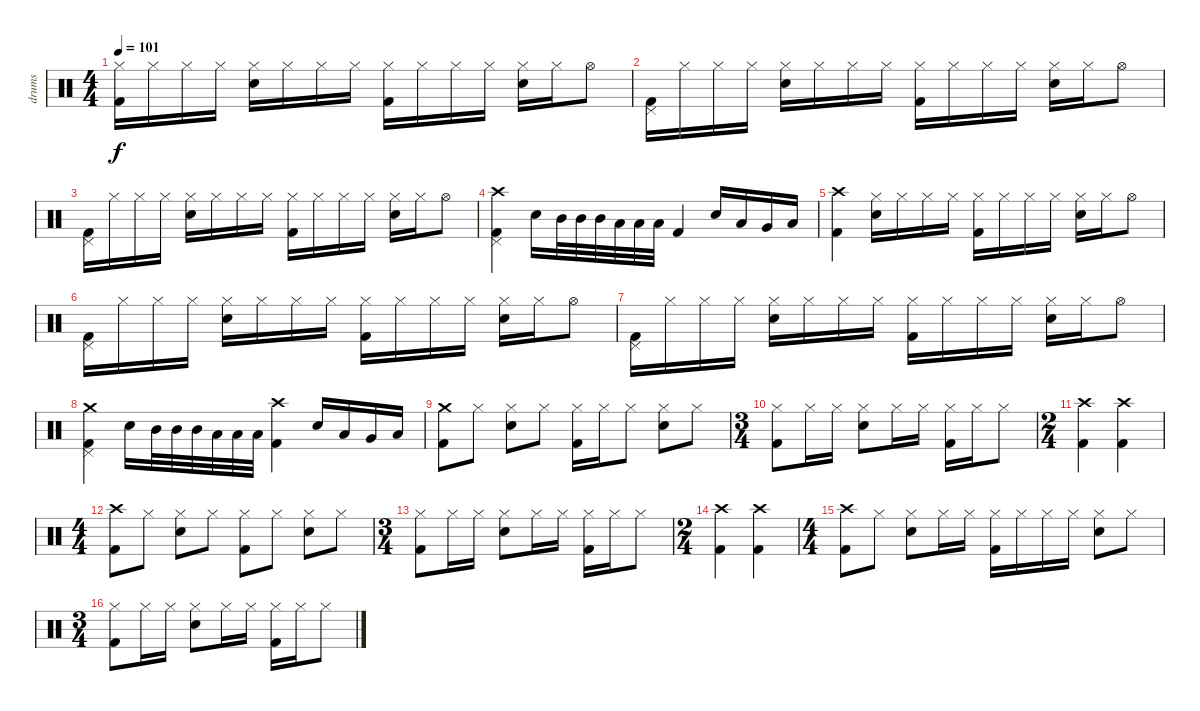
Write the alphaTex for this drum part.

\track ("drums" "drums") {instrument percussion}
\staff {score}
\articulation defaults
\ts (4 4)
\tempo 101
\clef neutral
\ks c
("Hi-Hat (closed)" "Kick (hit) 2").16{dy f} "Hi-Hat (closed)".16 "Hi-Hat (closed)".16 "Hi-Hat (closed)".16 ("Hi-Hat (closed)" "Electric Snare (hit)").16 "Hi-Hat (closed)".16 "Hi-Hat (closed)".16 "Hi-Hat (closed)".16 ("Hi-Hat (closed)" "Kick (hit) 2").16 "Hi-Hat (closed)".16 "Hi-Hat (closed)".16 "Hi-Hat (closed)".16 ("Hi-Hat (closed)" "Electric Snare (hit)").16 "Hi-Hat (closed)".16 "Hi-Hat (open)".8 |
("Pedal Hi-Hat (hit)" "Kick (hit) 2").16 "Hi-Hat (closed)".16 "Hi-Hat (closed)".16 "Hi-Hat (closed)".16 ("Hi-Hat (closed)" "Electric Snare (hit)").16 "Hi-Hat (closed)".16 "Hi-Hat (closed)".16 "Hi-Hat (closed)".16 ("Hi-Hat (closed)" "Kick (hit) 2").16 "Hi-Hat (closed)".16 "Hi-Hat (closed)".16 "Hi-Hat (closed)".16 ("Hi-Hat (closed)" "Electric Snare (hit)").16 "Hi-Hat (closed)".16 "Hi-Hat (open)".8 |
("Pedal Hi-Hat (hit)" "Kick (hit) 2").16 "Hi-Hat (closed)".16 "Hi-Hat (closed)".16 "Hi-Hat (closed)".16 ("Hi-Hat (closed)" "Electric Snare (hit)").16 "Hi-Hat (closed)".16 "Hi-Hat (closed)".16 "Hi-Hat (closed)".16 ("Hi-Hat (closed)" "Kick (hit) 2").16 "Hi-Hat (closed)".16 "Hi-Hat (closed)".16 "Hi-Hat (closed)".16 ("Hi-Hat (closed)" "Electric Snare (hit)").16 "Hi-Hat (closed)".16 "Hi-Hat (open)".8 |
("Crash high (hit)" "Pedal Hi-Hat (hit)" "Kick (hit) 2").4 "Electric Snare (hit)".16 "Mid Tom (hit)".32 "Mid Tom (hit)".32 "Mid Tom (hit)".32 "Low Tom (hit)".32 "Low Tom (hit)".32 "Low Tom (hit)".32 "Kick (hit) 2".4 "Electric Snare (hit)".16 "Low Tom (hit)".16 "Very Low Tom (hit)".16 "Low Floor Tom (hit)".16 |
("Crash high (hit)" "Kick (hit) 2").4 ("Hi-Hat (closed)" "Electric Snare (hit)").16 "Hi-Hat (closed)".16 "Hi-Hat (closed)".16 "Hi-Hat (closed)".16 ("Hi-Hat (closed)" "Kick (hit) 2").16 "Hi-Hat (closed)".16 "Hi-Hat (closed)".16 "Hi-Hat (closed)".16 ("Hi-Hat (closed)" "Electric Snare (hit)").16 "Hi-Hat (closed)".16 "Hi-Hat (open)".8 |
("Pedal Hi-Hat (hit)" "Kick (hit) 2").16 "Hi-Hat (closed)".16 "Hi-Hat (closed)".16 "Hi-Hat (closed)".16 ("Hi-Hat (closed)" "Electric Snare (hit)").16 "Hi-Hat (closed)".16 "Hi-Hat (closed)".16 "Hi-Hat (closed)".16 ("Hi-Hat (closed)" "Kick (hit) 2").16 "Hi-Hat (closed)".16 "Hi-Hat (closed)".16 "Hi-Hat (closed)".16 ("Hi-Hat (closed)" "Electric Snare (hit)").16 "Hi-Hat (closed)".16 "Hi-Hat (open)".8 |
("Pedal Hi-Hat (hit)" "Kick (hit) 2").16 "Hi-Hat (closed)".16 "Hi-Hat (closed)".16 "Hi-Hat (closed)".16 ("Hi-Hat (closed)" "Electric Snare (hit)").16 "Hi-Hat (closed)".16 "Hi-Hat (closed)".16 "Hi-Hat (closed)".16 ("Hi-Hat (closed)" "Kick (hit) 2").16 "Hi-Hat (closed)".16 "Hi-Hat (closed)".16 "Hi-Hat (closed)".16 ("Hi-Hat (closed)" "Electric Snare (hit)").16 "Hi-Hat (closed)".16 "Hi-Hat (open)".8 |
("Crash medium (hit)" "Pedal Hi-Hat (hit)" "Kick (hit) 2").4 "Electric Snare (hit)".16 "Mid Tom (hit)".32 "Mid Tom (hit)".32 "Mid Tom (hit)".32 "Low Tom (hit)".32 "Low Tom (hit)".32 "Low Tom (hit)".32 ("Crash high (hit)" "Kick (hit) 2").4 "Electric Snare (hit)".16 "Low Tom (hit)".16 "Very Low Tom (hit)".16 "Low Floor Tom (hit)".16 |
("Crash medium (hit)" "Kick (hit) 2").8 "Hi-Hat (closed)".8 ("Hi-Hat (closed)" "Electric Snare (hit)").8 "Hi-Hat (closed)".8 ("Hi-Hat (closed)" "Kick (hit) 2").16 "Hi-Hat (closed)".16 "Hi-Hat (closed)".8 ("Hi-Hat (closed)" "Electric Snare (hit)").8 "Hi-Hat (closed)".8 |
\ts (3 4)
("Hi-Hat (closed)" "Kick (hit) 2").8 "Hi-Hat (closed)".16 "Hi-Hat (closed)".16 ("Hi-Hat (closed)" "Electric Snare (hit)").8 "Hi-Hat (closed)".16 "Hi-Hat (closed)".16 ("Hi-Hat (closed)" "Kick (hit) 2").16 "Hi-Hat (closed)".16 "Hi-Hat (closed)".8 |
\ts (2 4)
("Crash high (hit)" "Kick (hit) 2").4 ("Crash high (hit)" "Kick (hit) 2").4 |
\ts (4 4)
("Crash high (hit)" "Kick (hit) 2").8 "Hi-Hat (closed)".8 ("Hi-Hat (closed)" "Electric Snare (hit)").8 "Hi-Hat (closed)".8 ("Hi-Hat (closed)" "Kick (hit) 2").8 "Hi-Hat (closed)".8 ("Hi-Hat (closed)" "Electric Snare (hit)").8 "Hi-Hat (closed)".8 |
\ts (3 4)
("Hi-Hat (closed)" "Kick (hit) 2").8 "Hi-Hat (closed)".16 "Hi-Hat (closed)".16 ("Hi-Hat (closed)" "Electric Snare (hit)").8 "Hi-Hat (closed)".16 "Hi-Hat (closed)".16 ("Hi-Hat (closed)" "Kick (hit) 2").16 "Hi-Hat (closed)".16 "Hi-Hat (closed)".8 |
\ts (2 4)
("Crash high (hit)" "Kick (hit) 2").4 ("Crash high (hit)" "Kick (hit) 2").4 |
\ts (4 4)
("Crash high (hit)" "Kick (hit) 2").8 "Hi-Hat (closed)".8 ("Hi-Hat (closed)" "Electric Snare (hit)").8 "Hi-Hat (closed)".16 "Hi-Hat (closed)".16 ("Hi-Hat (closed)" "Kick (hit) 2").16 "Hi-Hat (closed)".16 "Hi-Hat (closed)".16 "Hi-Hat (closed)".16 ("Hi-Hat (closed)" "Electric Snare (hit)").8 "Hi-Hat (closed)".8 |
\ts (3 4)
("Hi-Hat (closed)" "Kick (hit) 2").8 "Hi-Hat (closed)".16 "Hi-Hat (closed)".16 ("Hi-Hat (closed)" "Electric Snare (hit)").8 "Hi-Hat (closed)".16 "Hi-Hat (closed)".16 ("Hi-Hat (closed)" "Kick (hit) 2").16 "Hi-Hat (closed)".16 "Hi-Hat (closed)".8
